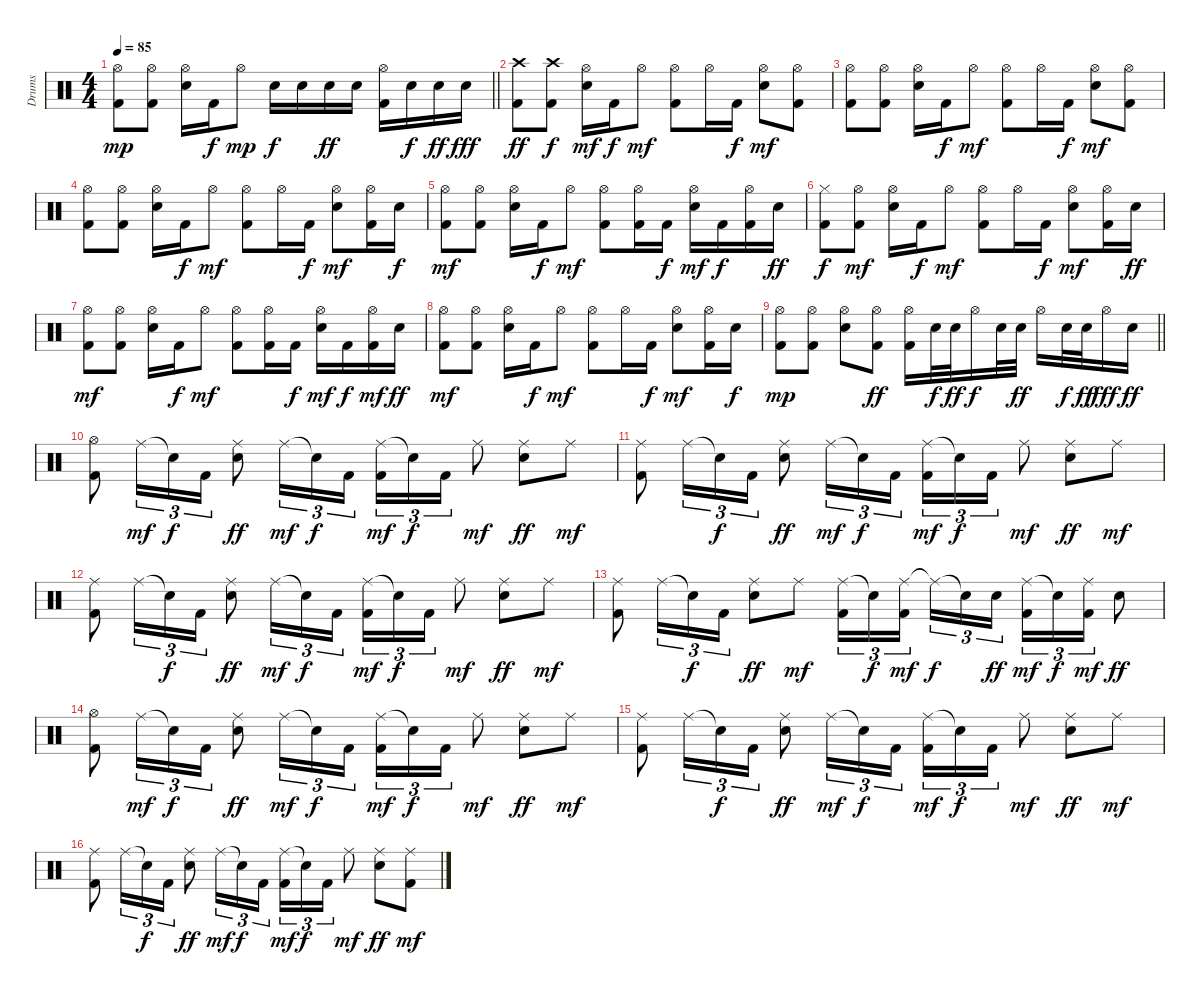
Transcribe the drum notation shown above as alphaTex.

\track ("Drums" "Drums") {instrument percussion}
\staff {score}
\articulation defaults
\ts (4 4)
\tempo 85
\clef neutral
\barLineRight lightlight
\ks c
("Hi-Hat (open)" "Kick (hit) 2").8{dy mp} ("Hi-Hat (open)" "Kick (hit) 2").8 ("Hi-Hat (open)" "Snare (hit) 2").16 "Kick (hit) 2".16{dy f} "Hi-Hat (open)".8{dy mp} "Snare (hit) 2".16{dy f} "Snare (hit) 2".16 "Snare (hit) 2".16{dy ff} "Snare (hit) 2".16 ("Hi-Hat (open)" "Kick (hit) 2").16 "Snare (hit) 2".16{dy f} "Snare (hit) 2".16{dy ff} "Snare (hit) 2".16{dy fff} |
("Crash high (hit)" "Kick (hit) 2").8{dy ff} ("Crash high (hit)" "Kick (hit) 2").8{dy f} ("Hi-Hat (open)" "Snare (hit) 2").16{dy mf} "Kick (hit) 2".16{dy f} "Hi-Hat (open)".8{dy mf} ("Hi-Hat (open)" "Kick (hit) 2").8 "Hi-Hat (open)".16 "Kick (hit) 2".16{dy f} ("Hi-Hat (open)" "Snare (hit) 2").8{dy mf} ("Hi-Hat (open)" "Kick (hit) 2").8 |
("Hi-Hat (open)" "Kick (hit) 2").8 ("Hi-Hat (open)" "Kick (hit) 2").8 ("Hi-Hat (open)" "Snare (hit) 2").16 "Kick (hit) 2".16{dy f} "Hi-Hat (open)".8{dy mf} ("Hi-Hat (open)" "Kick (hit) 2").8 "Hi-Hat (open)".16 "Kick (hit) 2".16{dy f} ("Hi-Hat (open)" "Snare (hit) 2").8{dy mf} ("Hi-Hat (open)" "Kick (hit) 2").8 |
("Hi-Hat (open)" "Kick (hit) 2").8 ("Hi-Hat (open)" "Kick (hit) 2").8 ("Hi-Hat (open)" "Snare (hit) 2").16 "Kick (hit) 2".16{dy f} "Hi-Hat (open)".8{dy mf} ("Hi-Hat (open)" "Kick (hit) 2").8 "Hi-Hat (open)".16 "Kick (hit) 2".16{dy f} ("Hi-Hat (open)" "Snare (hit) 2").8{dy mf} ("Hi-Hat (open)" "Kick (hit) 2").16 "Snare (hit) 2".16{dy f} |
("Hi-Hat (open)" "Kick (hit) 2").8{dy mf} ("Hi-Hat (open)" "Kick (hit) 2").8 ("Hi-Hat (open)" "Snare (hit) 2").16 "Kick (hit) 2".16{dy f} "Hi-Hat (open)".8{dy mf} ("Hi-Hat (open)" "Kick (hit) 2").8 ("Hi-Hat (open)" "Kick (hit) 2").16 "Kick (hit) 2".16{dy f} ("Hi-Hat (open)" "Snare (hit) 2").16{dy mf} "Kick (hit) 2".16{dy f} ("Hi-Hat (open)" "Kick (hit) 2").16 "Snare (hit) 2".16{dy ff} |
("Hi-Hat (closed)" "Kick (hit) 2").8{dy f} ("Hi-Hat (open)" "Kick (hit) 2").8{dy mf} ("Hi-Hat (open)" "Snare (hit) 2").16 "Kick (hit) 2".16{dy f} "Hi-Hat (open)".8{dy mf} ("Hi-Hat (open)" "Kick (hit) 2").8 "Hi-Hat (open)".16 "Kick (hit) 2".16{dy f} ("Hi-Hat (open)" "Snare (hit) 2").8{dy mf} ("Hi-Hat (open)" "Kick (hit) 2").16 "Snare (hit) 2".16{dy ff} |
("Hi-Hat (open)" "Kick (hit) 2").8{dy mf} ("Hi-Hat (open)" "Kick (hit) 2").8 ("Hi-Hat (open)" "Snare (hit) 2").16 "Kick (hit) 2".16{dy f} "Hi-Hat (open)".8{dy mf} ("Hi-Hat (open)" "Kick (hit) 2").8 ("Hi-Hat (open)" "Kick (hit) 2").16 "Kick (hit) 2".16{dy f} ("Hi-Hat (open)" "Snare (hit) 2").16{dy mf} "Kick (hit) 2".16{dy f} ("Hi-Hat (open)" "Kick (hit) 2").16{dy mf} "Snare (hit) 2".16{dy ff} |
("Hi-Hat (open)" "Kick (hit) 2").8{dy mf} ("Hi-Hat (open)" "Kick (hit) 2").8 ("Hi-Hat (open)" "Snare (hit) 2").16 "Kick (hit) 2".16{dy f} "Hi-Hat (open)".8{dy mf} ("Hi-Hat (open)" "Kick (hit) 2").8 "Hi-Hat (open)".16 "Kick (hit) 2".16{dy f} ("Hi-Hat (open)" "Snare (hit) 2").8{dy mf} ("Hi-Hat (open)" "Kick (hit) 2").16 "Snare (hit) 2".16{dy f} |
\barLineRight lightlight
("Hi-Hat (open)" "Kick (hit) 2").8{dy mp} ("Hi-Hat (open)" "Kick (hit) 2").8 ("Hi-Hat (open)" "Snare (hit) 2").8 ("Hi-Hat (open)" "Kick (hit) 2").8{dy ff} ("Hi-Hat (open)" "Kick (hit) 2").16 "Snare (hit) 2".32{dy f} "Snare (hit) 2".32{dy ff} "Hi-Hat (open)".16{dy f} "Snare (hit) 2".32 "Snare (hit) 2".32{dy ff} "Hi-Hat (open)".16 "Snare (hit) 2".32{dy f} "Snare (hit) 2".32{dy ff} "Hi-Hat (open)".16{dy fff} "Snare (hit) 2".16{dy ff} |
\section ("" "")
("Hi-Hat (open)" "Kick (hit) 2").8 "Ride (middle)".16{tu (3 2) dy mf} "Snare (hit)"{t}.16{tu (3 2) dy f} "Kick (hit) 2".16{tu (3 2)} ("Ride (middle)" "Snare (hit) 2").8{dy ff} "Ride (middle)".16{tu (3 2) dy mf} "Snare (hit)"{t}.16{tu (3 2) dy f} "Kick (hit) 2".16{tu (3 2)} ("Ride (middle)" "Kick (hit) 2").16{tu (3 2) dy mf} "Snare (hit)"{t}.16{tu (3 2) dy f} "Kick (hit) 2".16{tu (3 2)} "Ride (middle)".8{dy mf} ("Ride (middle)" "Snare (hit) 2").8{dy ff} "Ride (middle)".8{dy mf} |
("Ride (middle)" "Kick (hit) 2").8 "Ride (middle)".16{tu (3 2)} "Snare (hit)"{t}.16{tu (3 2) dy f} "Kick (hit) 2".16{tu (3 2)} ("Ride (middle)" "Snare (hit) 2").8{dy ff} "Ride (middle)".16{tu (3 2) dy mf} "Snare (hit)"{t}.16{tu (3 2) dy f} "Kick (hit) 2".16{tu (3 2)} ("Ride (middle)" "Kick (hit) 2").16{tu (3 2) dy mf} "Snare (hit)"{t}.16{tu (3 2) dy f} "Kick (hit) 2".16{tu (3 2)} "Ride (middle)".8{dy mf} ("Ride (middle)" "Snare (hit) 2").8{dy ff} "Ride (middle)".8{dy mf} |
("Ride (middle)" "Kick (hit) 2").8 "Ride (middle)".16{tu (3 2)} "Snare (hit)"{t}.16{tu (3 2) dy f} "Kick (hit) 2".16{tu (3 2)} ("Ride (middle)" "Snare (hit) 2").8{dy ff} "Ride (middle)".16{tu (3 2) dy mf} "Snare (hit)"{t}.16{tu (3 2) dy f} "Kick (hit) 2".16{tu (3 2)} ("Ride (middle)" "Kick (hit) 2").16{tu (3 2) dy mf} "Snare (hit)"{t}.16{tu (3 2) dy f} "Kick (hit) 2".16{tu (3 2)} "Ride (middle)".8{dy mf} ("Ride (middle)" "Snare (hit) 2").8{dy ff} "Ride (middle)".8{dy mf} |
("Ride (middle)" "Kick (hit) 2").8 "Ride (middle)".16{tu (3 2)} "Snare (hit)"{t}.16{tu (3 2) dy f} "Kick (hit) 2".16{tu (3 2)} ("Ride (middle)" "Snare (hit) 2").8{dy ff} "Ride (middle)".8{dy mf} ("Ride (middle)" "Kick (hit) 2").16{tu (3 2)} "Snare (hit)"{t}.16{tu (3 2) dy f} ("Ride (middle)" "Kick (hit) 2").16{tu (3 2) dy mf beam splitsecondary} "Ride (middle)"{t}.16{tu (3 2) dy f} "Snare (hit)"{t}.16{tu (3 2)} "Snare (hit) 2".16{tu (3 2) dy ff} ("Ride (middle)" "Kick (hit) 2").16{tu (3 2) dy mf} "Snare (hit)"{t}.16{tu (3 2) dy f} ("Ride (middle)" "Kick (hit) 2").16{tu (3 2) dy mf} "Snare (hit) 2".8{dy ff} |
("Hi-Hat (open)" "Kick (hit) 2").8 "Ride (middle)".16{tu (3 2) dy mf} "Snare (hit)"{t}.16{tu (3 2) dy f} "Kick (hit) 2".16{tu (3 2)} ("Ride (middle)" "Snare (hit) 2").8{dy ff} "Ride (middle)".16{tu (3 2) dy mf} "Snare (hit)"{t}.16{tu (3 2) dy f} "Kick (hit) 2".16{tu (3 2)} ("Ride (middle)" "Kick (hit) 2").16{tu (3 2) dy mf} "Snare (hit)"{t}.16{tu (3 2) dy f} "Kick (hit) 2".16{tu (3 2)} "Ride (middle)".8{dy mf} ("Ride (middle)" "Snare (hit) 2").8{dy ff} "Ride (middle)".8{dy mf} |
("Ride (middle)" "Kick (hit) 2").8 "Ride (middle)".16{tu (3 2)} "Snare (hit)"{t}.16{tu (3 2) dy f} "Kick (hit) 2".16{tu (3 2)} ("Ride (middle)" "Snare (hit) 2").8{dy ff} "Ride (middle)".16{tu (3 2) dy mf} "Snare (hit)"{t}.16{tu (3 2) dy f} "Kick (hit) 2".16{tu (3 2)} ("Ride (middle)" "Kick (hit) 2").16{tu (3 2) dy mf} "Snare (hit)"{t}.16{tu (3 2) dy f} "Kick (hit) 2".16{tu (3 2)} "Ride (middle)".8{dy mf} ("Ride (middle)" "Snare (hit) 2").8{dy ff} "Ride (middle)".8{dy mf} |
("Ride (middle)" "Kick (hit) 2").8 "Ride (middle)".16{tu (3 2)} "Snare (hit)"{t}.16{tu (3 2) dy f} "Kick (hit) 2".16{tu (3 2)} ("Ride (middle)" "Snare (hit) 2").8{dy ff} "Ride (middle)".16{tu (3 2) dy mf} "Snare (hit)"{t}.16{tu (3 2) dy f} "Kick (hit) 2".16{tu (3 2)} ("Ride (middle)" "Kick (hit) 2").16{tu (3 2) dy mf} "Snare (hit)"{t}.16{tu (3 2) dy f} "Kick (hit) 2".16{tu (3 2)} "Ride (middle)".8{dy mf} ("Ride (middle)" "Snare (hit) 2").8{dy ff} ("Ride (middle)" "Kick (hit) 2").8{dy mf}
